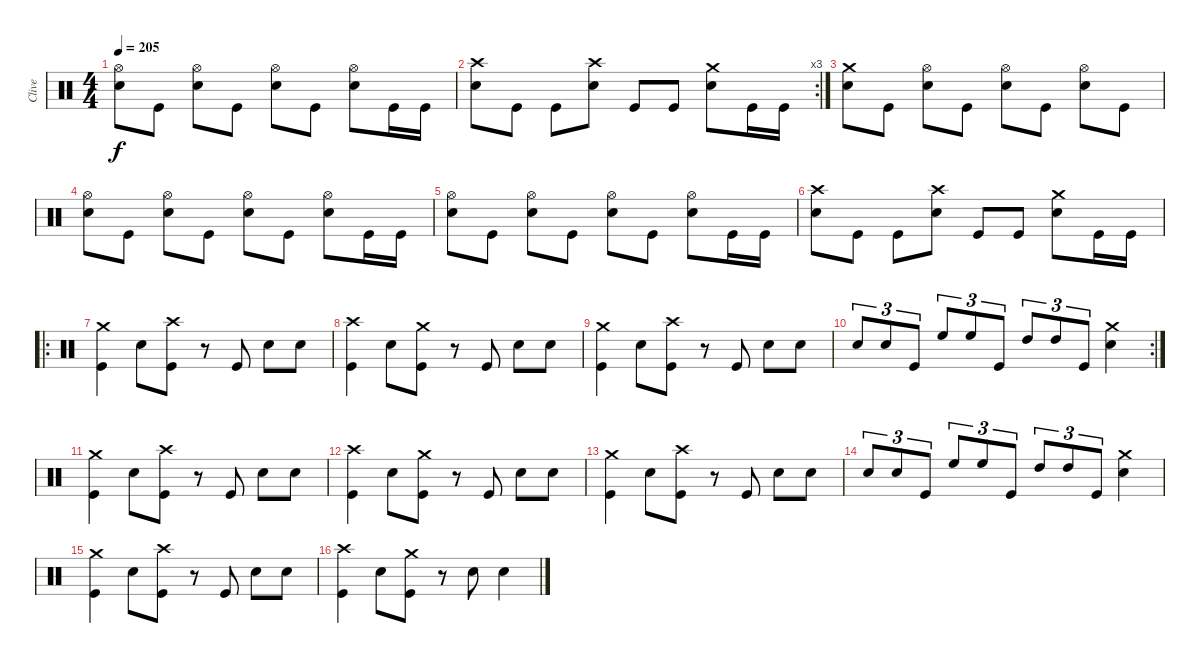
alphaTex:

\track ("Clive" "Clive") {instrument percussion}
\staff {score}
\articulation defaults
\ts (4 4)
\tempo 205
\clef neutral
\ks c
("Hi-Hat (open)" "Snare (hit) 2").8{dy f} "Kick (hit)".8 ("Hi-Hat (open)" "Snare (hit) 2").8 "Kick (hit)".8 ("Hi-Hat (open)" "Snare (hit) 2").8 "Kick (hit)".8 ("Hi-Hat (open)" "Snare (hit) 2").8 "Kick (hit)".16 "Kick (hit)".16 |
\rc 3
("Crash high (hit)" "Snare (hit) 2").8 "Kick (hit)".8 "Kick (hit)".8 ("Crash high (hit)" "Snare (hit) 2").8 "Kick (hit)".8 "Kick (hit)".8 ("Crash medium (hit)" "Snare (hit) 2").8 "Kick (hit)".16 "Kick (hit)".16 |
("Crash medium (hit)" "Snare (hit) 2").8 "Kick (hit)".8 ("Hi-Hat (open)" "Snare (hit) 2").8 "Kick (hit)".8 ("Hi-Hat (open)" "Snare (hit) 2").8 "Kick (hit)".8 ("Hi-Hat (open)" "Snare (hit) 2").8 "Kick (hit)".8 |
("Hi-Hat (open)" "Snare (hit) 2").8 "Kick (hit)".8 ("Hi-Hat (open)" "Snare (hit) 2").8 "Kick (hit)".8 ("Hi-Hat (open)" "Snare (hit) 2").8 "Kick (hit)".8 ("Hi-Hat (open)" "Snare (hit) 2").8 "Kick (hit)".16 "Kick (hit)".16 |
("Hi-Hat (open)" "Snare (hit) 2").8 "Kick (hit)".8 ("Hi-Hat (open)" "Snare (hit) 2").8 "Kick (hit)".8 ("Hi-Hat (open)" "Snare (hit) 2").8 "Kick (hit)".8 ("Hi-Hat (open)" "Snare (hit) 2").8 "Kick (hit)".16 "Kick (hit)".16 |
("Crash high (hit)" "Snare (hit) 2").8 "Kick (hit)".8 "Kick (hit)".8 ("Crash high (hit)" "Snare (hit) 2").8 "Kick (hit)".8 "Kick (hit)".8 ("Crash medium (hit)" "Snare (hit) 2").8 "Kick (hit)".16 "Kick (hit)".16 |
\ro
("Crash medium (hit)" "Kick (hit)").4 "Snare (hit) 2".8 ("Crash high (hit)" "Kick (hit)").8 r.8 "Kick (hit)".8 "Snare (hit) 2".8 "Snare (hit) 2".8 |
("Crash high (hit)" "Kick (hit)").4 "Snare (hit) 2".8 ("Crash medium (hit)" "Kick (hit)").8 r.8 "Kick (hit)".8 "Snare (hit) 2".8 "Snare (hit) 2".8 |
("Crash medium (hit)" "Kick (hit)").4 "Snare (hit) 2".8 ("Crash high (hit)" "Kick (hit)").8 r.8 "Kick (hit)".8 "Snare (hit) 2".8 "Snare (hit) 2".8 |
\rc 2 "Snare (hit) 2".8{tu (3 2)} "Snare (hit) 2".8{tu (3 2)} "Kick (hit)".8{tu (3 2)} "High Floor Tom (hit)".8{tu (3 2)} "High Floor Tom (hit)".8{tu (3 2)} "Kick (hit)".8{tu (3 2)} "High Tom (hit)".8{tu (3 2)} "High Tom (hit)".8{tu (3 2)} "Kick (hit)".8{tu (3 2)}
("Crash medium (hit)" "Snare (hit) 2").4 |
("Crash medium (hit)" "Kick (hit)").4 "Snare (hit) 2".8 ("Crash high (hit)" "Kick (hit)").8 r.8 "Kick (hit)".8 "Snare (hit) 2".8 "Snare (hit) 2".8 |
("Crash high (hit)" "Kick (hit)").4 "Snare (hit) 2".8 ("Crash medium (hit)" "Kick (hit)").8 r.8 "Kick (hit)".8 "Snare (hit) 2".8 "Snare (hit) 2".8 |
("Crash medium (hit)" "Kick (hit)").4 "Snare (hit) 2".8 ("Crash high (hit)" "Kick (hit)").8 r.8 "Kick (hit)".8 "Snare (hit) 2".8 "Snare (hit) 2".8 |
"Snare (hit) 2".8{tu (3 2)} "Snare (hit) 2".8{tu (3 2)} "Kick (hit)".8{tu (3 2)} "High Floor Tom (hit)".8{tu (3 2)} "High Floor Tom (hit)".8{tu (3 2)} "Kick (hit)".8{tu (3 2)} "High Tom (hit)".8{tu (3 2)} "High Tom (hit)".8{tu (3 2)} "Kick (hit)".8{tu (3 2)} ("Crash medium (hit)" "Snare (hit) 2").4 |
("Crash medium (hit)" "Kick (hit)").4 "Snare (hit) 2".8 ("Crash high (hit)" "Kick (hit)").8 r.8 "Kick (hit)".8 "Snare (hit) 2".8 "Snare (hit) 2".8 |
("Crash high (hit)" "Kick (hit)").4 "Snare (hit) 2".8 ("Crash medium (hit)" "Kick (hit)").8 r.8 "Snare (hit) 2".8 "Snare (hit) 2".4
